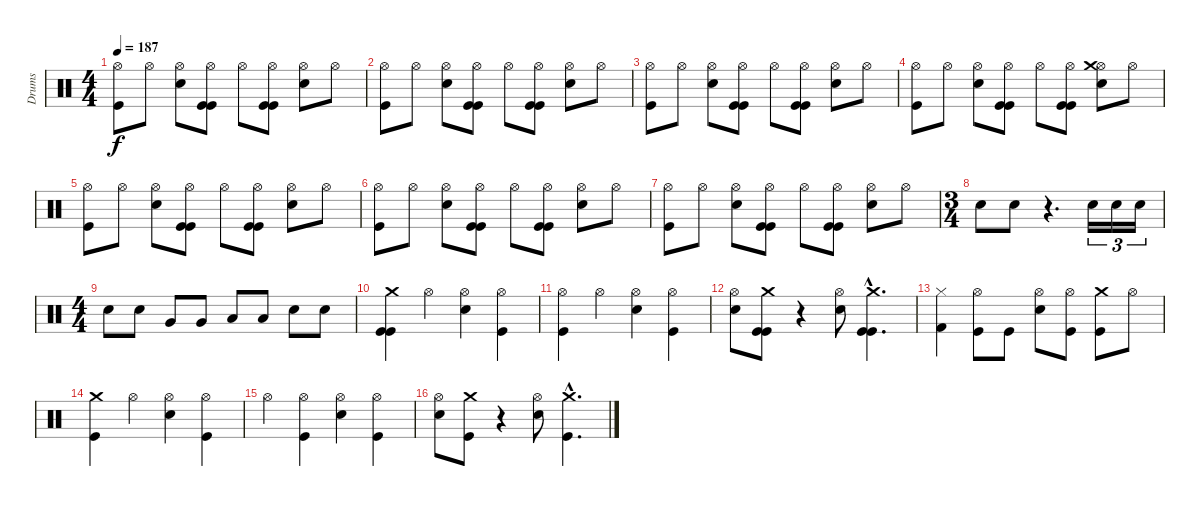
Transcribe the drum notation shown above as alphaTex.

\track ("Drums" "Drums") {instrument percussion}
\staff {score}
\articulation defaults
\ts (4 4)
\tempo 187
\clef neutral
\ks c
("Hi-Hat (open)" "Kick (hit)").8{dy f} "Hi-Hat (open)".8 ("Hi-Hat (open)" "Electric Snare (hit)").8 ("Hi-Hat (open)" "Kick (hit)" "Kick (hit)").8 "Hi-Hat (open)".8 ("Hi-Hat (open)" "Kick (hit)" "Kick (hit)").8 ("Hi-Hat (open)" "Electric Snare (hit)").8 "Hi-Hat (open)".8 |
("Hi-Hat (open)" "Kick (hit)").8 "Hi-Hat (open)".8 ("Hi-Hat (open)" "Electric Snare (hit)").8 ("Hi-Hat (open)" "Kick (hit)" "Kick (hit)").8 "Hi-Hat (open)".8 ("Hi-Hat (open)" "Kick (hit)" "Kick (hit)").8 ("Hi-Hat (open)" "Electric Snare (hit)").8 "Hi-Hat (open)".8 |
("Hi-Hat (open)" "Kick (hit)").8 "Hi-Hat (open)".8 ("Hi-Hat (open)" "Electric Snare (hit)").8 ("Hi-Hat (open)" "Kick (hit)" "Kick (hit)").8 "Hi-Hat (open)".8 ("Hi-Hat (open)" "Kick (hit)" "Kick (hit)").8 ("Hi-Hat (open)" "Electric Snare (hit)").8 "Hi-Hat (open)".8 |
("Hi-Hat (open)" "Kick (hit)").8 "Hi-Hat (open)".8 ("Hi-Hat (open)" "Electric Snare (hit)").8 ("Hi-Hat (open)" "Kick (hit)" "Kick (hit)").8 "Hi-Hat (open)".8 ("Hi-Hat (open)" "Kick (hit)" "Kick (hit)").8 ("Hi-Hat (open)" "Crash medium (hit)" "Electric Snare (hit)").8 "Hi-Hat (open)".8 |
("Hi-Hat (open)" "Kick (hit)").8 "Hi-Hat (open)".8 ("Hi-Hat (open)" "Electric Snare (hit)").8 ("Hi-Hat (open)" "Kick (hit)" "Kick (hit)").8 "Hi-Hat (open)".8 ("Hi-Hat (open)" "Kick (hit)" "Kick (hit)").8 ("Hi-Hat (open)" "Electric Snare (hit)").8 "Hi-Hat (open)".8 |
("Hi-Hat (open)" "Kick (hit)").8 "Hi-Hat (open)".8 ("Hi-Hat (open)" "Electric Snare (hit)").8 ("Hi-Hat (open)" "Kick (hit)" "Kick (hit)").8 "Hi-Hat (open)".8 ("Hi-Hat (open)" "Kick (hit)" "Kick (hit)").8 ("Hi-Hat (open)" "Electric Snare (hit)").8 "Hi-Hat (open)".8 |
("Hi-Hat (open)" "Kick (hit)").8 "Hi-Hat (open)".8 ("Hi-Hat (open)" "Electric Snare (hit)").8 ("Hi-Hat (open)" "Kick (hit)" "Kick (hit)").8 "Hi-Hat (open)".8 ("Hi-Hat (open)" "Kick (hit)" "Kick (hit)").8 ("Hi-Hat (open)" "Electric Snare (hit)").8 "Hi-Hat (open)".8 |
\ts (3 4)
"Electric Snare (hit)".8 "Electric Snare (hit)".8 r.4{d} "Snare (hit) 2".16{tu (3 2)} "Snare (hit) 2".16{tu (3 2)} "Snare (hit) 2".16{tu (3 2)} |
\ts (4 4)
"Electric Snare (hit)".8 "Electric Snare (hit)".8 "Very Low Tom (hit)".8 "Very Low Tom (hit)".8 "Low Floor Tom (hit)".8 "Low Floor Tom (hit)".8 "Electric Snare (hit)".8 "Electric Snare (hit)".8 |
("Kick (hit)" "Kick (hit)" "Crash medium (hit)").4 "Hi-Hat (open)".4 ("Hi-Hat (open)" "Electric Snare (hit)").4 ("Hi-Hat (open)" "Kick (hit)").4 |
("Hi-Hat (open)" "Kick (hit)").4 "Hi-Hat (open)".4 ("Hi-Hat (open)" "Electric Snare (hit)").4 ("Hi-Hat (open)" "Kick (hit)").4 |
("Hi-Hat (open)" "Electric Snare (hit)").8 ("Kick (hit)" "Kick (hit)" "Crash medium (hit)").8 r.4 ("Hi-Hat (open)" "Electric Snare (hit)").8 ("Kick (hit)"{hac} "Kick (hit)"{hac} "Crash medium (hit)"{hac}).4{d} |
("Kick (hit) 2" "Hi-Hat (closed)").4 ("Hi-Hat (open)" "Kick (hit)").8 "Kick (hit)".8 ("Hi-Hat (open)" "Electric Snare (hit)").8 ("Hi-Hat (open)" "Kick (hit)").8 ("Kick (hit)" "Crash medium (hit)").8 "Hi-Hat (open)".8 |
("Kick (hit)" "Crash medium (hit)").4 "Hi-Hat (open)".4 ("Hi-Hat (open)" "Electric Snare (hit)").4 ("Hi-Hat (open)" "Kick (hit)").4 |
"Hi-Hat (open)".4 ("Hi-Hat (open)" "Kick (hit)").4 ("Hi-Hat (open)" "Electric Snare (hit)").4 ("Hi-Hat (open)" "Kick (hit)").4 |
("Hi-Hat (open)" "Electric Snare (hit)").8 ("Kick (hit)" "Crash medium (hit)").8 r.4 ("Hi-Hat (open)" "Electric Snare (hit)").8 ("Kick (hit)"{hac} "Crash medium (hit)"{hac}).4{d}
